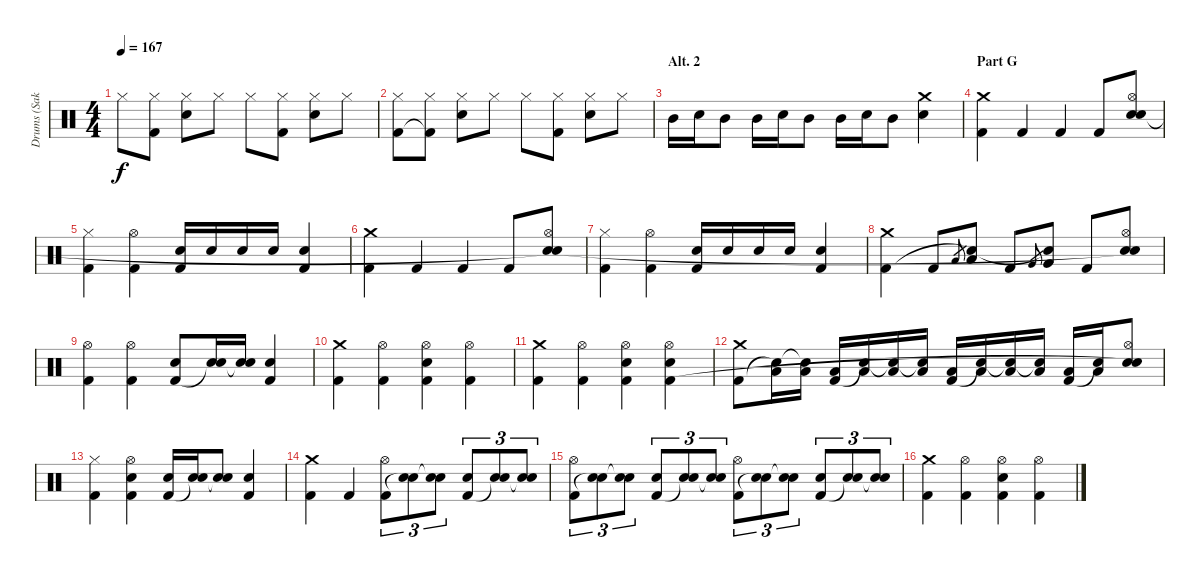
\track ("Drums (Sakura)" "Drums (Sak") {instrument percussion}
\staff {score}
\articulation defaults
\ts (4 4)
\tempo 167
\clef neutral
\ks c "Hi-Hat (closed)".8{dy f}
("Hi-Hat (closed)" "Kick (hit) 2").8 ("Hi-Hat (closed)" "Electric Snare (hit)").8 "Hi-Hat (closed)".8 "Hi-Hat (closed)".8 ("Hi-Hat (closed)" "Kick (hit) 2").8 ("Hi-Hat (closed)" "Electric Snare (hit)").8 "Hi-Hat (closed)".8 |
("Hi-Hat (closed)" "Kick (hit) 2").8 ("Hi-Hat (closed)" "Kick (hit) 2"{t}).8 ("Hi-Hat (closed)" "Electric Snare (hit)").8 "Hi-Hat (closed)".8 "Hi-Hat (closed)".8 ("Hi-Hat (closed)" "Kick (hit) 2").8 ("Hi-Hat (closed)" "Electric Snare (hit)").8 "Hi-Hat (closed)".8 |
\section ("" "Alt. 2")
"Mid Tom (hit)".16 "Electric Snare (hit)".16 "Mid Tom (hit)".8 "Mid Tom (hit)".16 "Electric Snare (hit)".16 "Mid Tom (hit)".8 "Mid Tom (hit)".16 "Electric Snare (hit)".16 "Mid Tom (hit)".8 ("Crash medium (hit)" "Electric Snare (hit)").4 |
\section ("" "Part G")
("Crash medium (hit)" "Kick (hit) 2").4 "Kick (hit) 2".4 "Kick (hit) 2".4 "Kick (hit) 2".8 ("Hi-Hat (open)" "Electric Snare (hit)" "Snare (hit)").8 |
("Hi-Hat (closed)" "Kick (hit) 2").4 ("Hi-Hat (open)" "Kick (hit) 2").4 ("Electric Snare (hit)" "Kick (hit) 2").16 "Electric Snare (hit)".16 "Electric Snare (hit)".16 "Electric Snare (hit)".16 ("Electric Snare (hit)" "Kick (hit) 2").4 |
("Crash medium (hit)" "Kick (hit) 2").4 "Kick (hit) 2".4 "Kick (hit) 2".4 "Kick (hit) 2".8 ("Hi-Hat (open)" "Electric Snare (hit)" "Snare (hit)"{t}).8 |
("Hi-Hat (closed)" "Kick (hit) 2").4 ("Hi-Hat (open)" "Kick (hit) 2").4 ("Electric Snare (hit)" "Kick (hit) 2").16 "Electric Snare (hit)".16 "Electric Snare (hit)".16 "Electric Snare (hit)".16 ("Electric Snare (hit)" "Kick (hit) 2").4 |
("Crash medium (hit)" "Kick (hit) 2").4 "Kick (hit) 2".8 "Low Tom (hit)".8{gr} ("Low Tom (hit)" "Snare (hit)"{t}).8 "Kick (hit) 2".8 "Very Low Tom (hit)".8{gr} ("Very Low Tom (hit)" "Snare (hit)"{t}).8 "Kick (hit) 2".8 ("Hi-Hat (open)" "Electric Snare (hit)" "Snare (hit)"{t}).8 |
("Hi-Hat (open)" "Kick (hit) 2").4 ("Hi-Hat (open)" "Kick (hit) 2").4 ("Electric Snare (hit)" "Kick (hit) 2").8 ("Electric Snare (hit)" "Snare (hit)"{t}).16 ("Electric Snare (hit)" "Snare (hit)"{t}).16 ("Electric Snare (hit)" "Kick (hit) 2").4 |
("Crash medium (hit)" "Kick (hit) 2").4 ("Hi-Hat (open)" "Kick (hit) 2").4 ("Hi-Hat (open)" "Electric Snare (hit)" "Kick (hit) 2").4 ("Hi-Hat (open)" "Kick (hit) 2").4 |
("Crash medium (hit)" "Kick (hit) 2").4 ("Hi-Hat (open)" "Kick (hit) 2").4 ("Hi-Hat (open)" "Electric Snare (hit)" "Kick (hit) 2").4 ("Hi-Hat (open)" "Electric Snare (hit)" "Kick (hit) 2").4 |
("Crash medium (hit)" "Kick (hit) 2").8 ("Low Tom (hit)" "Snare (hit)"{t}).16 ("Low Tom (hit)" "Snare (hit)"{t}).16 ("Low Tom (hit)" "Kick (hit) 2").16 ("Low Tom (hit)" "Snare (hit)"{t}).16 ("Low Tom (hit)" "Snare (hit)"{t}).16 ("Low Tom (hit)" "Snare (hit)"{t}).16 ("Low Tom (hit)" "Kick (hit) 2").16 ("Low Tom (hit)" "Snare (hit)"{t}).16 ("Low Tom (hit)" "Snare (hit)"{t}).16 ("Low Tom (hit)" "Snare (hit)"{t}).16 ("Low Tom (hit)" "Kick (hit) 2").16 ("Low Tom (hit)" "Snare (hit)"{t}).16 ("Hi-Hat (open)" "Electric Snare (hit)" "Snare (hit)"{t}).8 |
("Hi-Hat (closed)" "Kick (hit) 2").4 ("Hi-Hat (open)" "Electric Snare (hit)" "Kick (hit) 2").4 ("Electric Snare (hit)" "Kick (hit) 2").16 ("Electric Snare (hit)" "Snare (hit)"{t}).16 ("Electric Snare (hit)" "Snare (hit)"{t}).8 ("Electric Snare (hit)" "Kick (hit) 2").4 |
("Crash medium (hit)" "Kick (hit) 2").4 "Kick (hit) 2".4 ("Hi-Hat (open)" "Kick (hit) 2").8{tu (3 2)} ("Electric Snare (hit)" "Snare (hit)"{t}).8{tu (3 2)} ("Electric Snare (hit)" "Snare (hit)"{t}).8{tu (3 2)} ("Electric Snare (hit)" "Kick (hit) 2").8{tu (3 2)} ("Electric Snare (hit)" "Snare (hit)"{t}).8{tu (3 2)} ("Electric Snare (hit)" "Snare (hit)"{t}).8{tu (3 2)} |
("Hi-Hat (open)" "Kick (hit) 2").8{tu (3 2)} ("Electric Snare (hit)" "Snare (hit)"{t}).8{tu (3 2)} ("Electric Snare (hit)" "Snare (hit)"{t}).8{tu (3 2)} ("Electric Snare (hit)" "Kick (hit) 2").8{tu (3 2)} ("Electric Snare (hit)" "Snare (hit)"{t}).8{tu (3 2)} ("Electric Snare (hit)" "Snare (hit)"{t}).8{tu (3 2)} ("Hi-Hat (open)" "Kick (hit) 2").8{tu (3 2)} ("Electric Snare (hit)" "Snare (hit)"{t}).8{tu (3 2)} ("Electric Snare (hit)" "Snare (hit)"{t}).8{tu (3 2)} ("Electric Snare (hit)" "Kick (hit) 2").8{tu (3 2)} ("Electric Snare (hit)" "Snare (hit)"{t}).8{tu (3 2)} ("Electric Snare (hit)" "Snare (hit)"{t}).8{tu (3 2)} |
("Crash medium (hit)" "Kick (hit) 2").4 ("Hi-Hat (open)" "Kick (hit) 2").4 ("Hi-Hat (open)" "Electric Snare (hit)" "Kick (hit) 2").4 ("Hi-Hat (open)" "Kick (hit) 2").4
